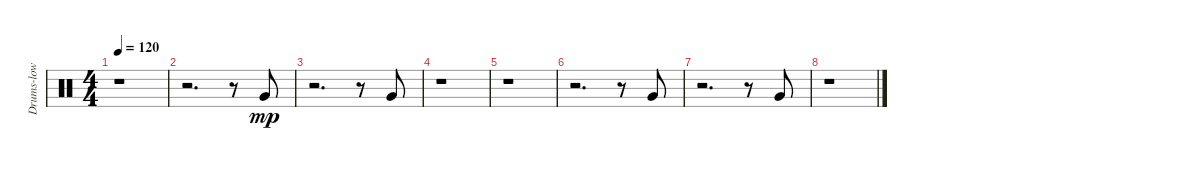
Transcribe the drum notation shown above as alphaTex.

\track ("Drums-low tom 1" "Drums-low ") {instrument percussion}
\staff {score}
\articulation defaults
\ts (4 4)
\tempo 120
\clef neutral
\ks c
r.1{dy mp} |
r.2{d} r.8 "Very Low Tom (hit)".8 |
r.2{d} r.8 "Very Low Tom (hit)".8 |
r.1 |
r.1 |
r.2{d} r.8 "Very Low Tom (hit)".8 |
r.2{d} r.8 "Very Low Tom (hit)".8 |
r.1
